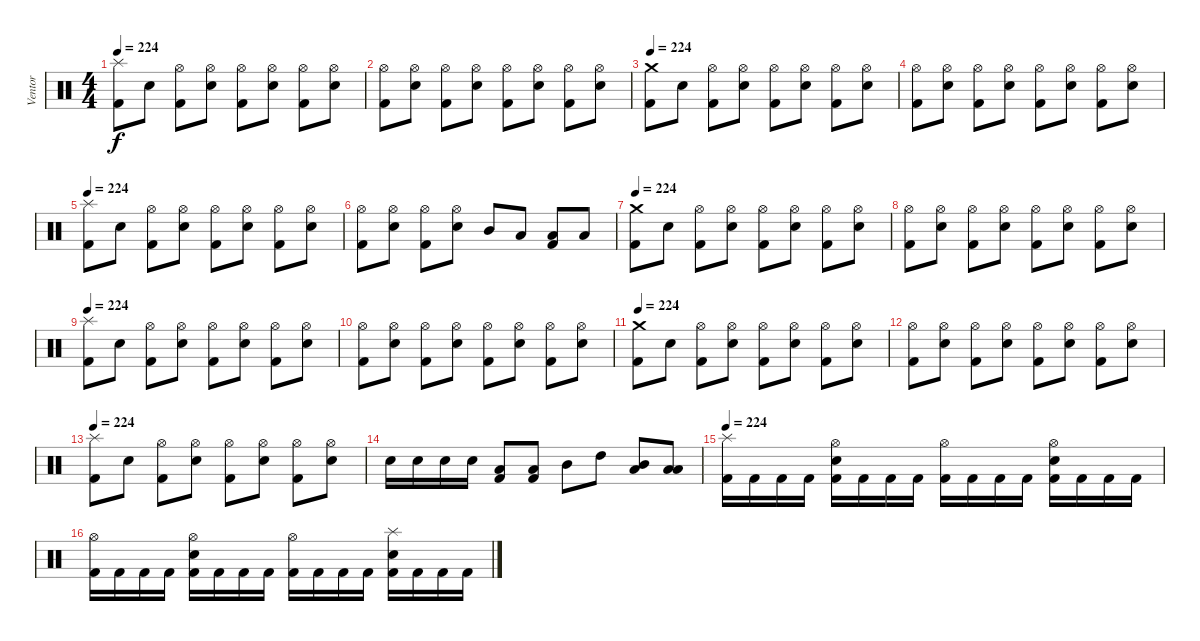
\track ("Ventor" "Ventor") {instrument percussion}
\staff {score}
\articulation defaults
\ts (4 4)
\tempo 224
\clef neutral
\ks c
("Splash (hit)" "Kick (hit) 2").8{dy f} "Electric Snare (hit)".8 ("Hi-Hat (open)" "Kick (hit) 2").8 ("Hi-Hat (open)" "Electric Snare (hit)").8 ("Hi-Hat (open)" "Kick (hit) 2").8 ("Hi-Hat (open)" "Electric Snare (hit)").8 ("Hi-Hat (open)" "Kick (hit) 2").8 ("Hi-Hat (open)" "Electric Snare (hit)").8 |
("Hi-Hat (open)" "Kick (hit) 2").8 ("Hi-Hat (open)" "Electric Snare (hit)").8 ("Hi-Hat (open)" "Kick (hit) 2").8 ("Hi-Hat (open)" "Electric Snare (hit)").8 ("Hi-Hat (open)" "Kick (hit) 2").8 ("Hi-Hat (open)" "Electric Snare (hit)").8 ("Hi-Hat (open)" "Kick (hit) 2").8 ("Hi-Hat (open)" "Electric Snare (hit)").8 |
\tempo 224
("Crash medium (hit)" "Kick (hit) 2").8 "Electric Snare (hit)".8 ("Hi-Hat (open)" "Kick (hit) 2").8 ("Hi-Hat (open)" "Electric Snare (hit)").8 ("Hi-Hat (open)" "Kick (hit) 2").8 ("Hi-Hat (open)" "Electric Snare (hit)").8 ("Hi-Hat (open)" "Kick (hit) 2").8 ("Hi-Hat (open)" "Electric Snare (hit)").8 |
("Hi-Hat (open)" "Kick (hit) 2").8 ("Hi-Hat (open)" "Electric Snare (hit)").8 ("Hi-Hat (open)" "Kick (hit) 2").8 ("Hi-Hat (open)" "Electric Snare (hit)").8 ("Hi-Hat (open)" "Kick (hit) 2").8 ("Hi-Hat (open)" "Electric Snare (hit)").8 ("Hi-Hat (open)" "Kick (hit) 2").8 ("Hi-Hat (open)" "Electric Snare (hit)").8 |
\tempo 224
("Splash (hit)" "Kick (hit) 2").8 "Electric Snare (hit)".8 ("Hi-Hat (open)" "Kick (hit) 2").8 ("Hi-Hat (open)" "Electric Snare (hit)").8 ("Hi-Hat (open)" "Kick (hit) 2").8 ("Hi-Hat (open)" "Electric Snare (hit)").8 ("Hi-Hat (open)" "Kick (hit) 2").8 ("Hi-Hat (open)" "Electric Snare (hit)").8 |
("Hi-Hat (open)" "Kick (hit) 2").8 ("Hi-Hat (open)" "Electric Snare (hit)").8 ("Hi-Hat (open)" "Kick (hit) 2").8 ("Hi-Hat (open)" "Electric Snare (hit)").8 "Mid Tom (hit)".8 "Low Tom (hit)".8 ("Low Floor Tom (hit)" "Kick (hit) 2").8 "Low Floor Tom (hit)".8 |
\tempo 224
("Crash medium (hit)" "Kick (hit) 2").8 "Electric Snare (hit)".8 ("Hi-Hat (open)" "Kick (hit) 2").8 ("Hi-Hat (open)" "Electric Snare (hit)").8 ("Hi-Hat (open)" "Kick (hit) 2").8 ("Hi-Hat (open)" "Electric Snare (hit)").8 ("Hi-Hat (open)" "Kick (hit) 2").8 ("Hi-Hat (open)" "Electric Snare (hit)").8 |
("Hi-Hat (open)" "Kick (hit) 2").8 ("Hi-Hat (open)" "Electric Snare (hit)").8 ("Hi-Hat (open)" "Kick (hit) 2").8 ("Hi-Hat (open)" "Electric Snare (hit)").8 ("Hi-Hat (open)" "Kick (hit) 2").8 ("Hi-Hat (open)" "Electric Snare (hit)").8 ("Hi-Hat (open)" "Kick (hit) 2").8 ("Hi-Hat (open)" "Electric Snare (hit)").8 |
\tempo 224
("Splash (hit)" "Kick (hit) 2").8 "Electric Snare (hit)".8 ("Hi-Hat (open)" "Kick (hit) 2").8 ("Hi-Hat (open)" "Electric Snare (hit)").8 ("Hi-Hat (open)" "Kick (hit) 2").8 ("Hi-Hat (open)" "Electric Snare (hit)").8 ("Hi-Hat (open)" "Kick (hit) 2").8 ("Hi-Hat (open)" "Electric Snare (hit)").8 |
("Hi-Hat (open)" "Kick (hit) 2").8 ("Hi-Hat (open)" "Electric Snare (hit)").8 ("Hi-Hat (open)" "Kick (hit) 2").8 ("Hi-Hat (open)" "Electric Snare (hit)").8 ("Hi-Hat (open)" "Kick (hit) 2").8 ("Hi-Hat (open)" "Electric Snare (hit)").8 ("Hi-Hat (open)" "Kick (hit) 2").8 ("Hi-Hat (open)" "Electric Snare (hit)").8 |
\tempo 224
("Crash medium (hit)" "Kick (hit) 2").8 "Electric Snare (hit)".8 ("Hi-Hat (open)" "Kick (hit) 2").8 ("Hi-Hat (open)" "Electric Snare (hit)").8 ("Hi-Hat (open)" "Kick (hit) 2").8 ("Hi-Hat (open)" "Electric Snare (hit)").8 ("Hi-Hat (open)" "Kick (hit) 2").8 ("Hi-Hat (open)" "Electric Snare (hit)").8 |
("Hi-Hat (open)" "Kick (hit) 2").8 ("Hi-Hat (open)" "Electric Snare (hit)").8 ("Hi-Hat (open)" "Kick (hit) 2").8 ("Hi-Hat (open)" "Electric Snare (hit)").8 ("Hi-Hat (open)" "Kick (hit) 2").8 ("Hi-Hat (open)" "Electric Snare (hit)").8 ("Hi-Hat (open)" "Kick (hit) 2").8 ("Hi-Hat (open)" "Electric Snare (hit)").8 |
\tempo 224
("Splash (hit)" "Kick (hit) 2").8 "Electric Snare (hit)".8 ("Hi-Hat (open)" "Kick (hit) 2").8 ("Hi-Hat (open)" "Electric Snare (hit)").8 ("Hi-Hat (open)" "Kick (hit) 2").8 ("Hi-Hat (open)" "Electric Snare (hit)").8 ("Hi-Hat (open)" "Kick (hit) 2").8 ("Hi-Hat (open)" "Electric Snare (hit)").8 |
"Electric Snare (hit)".16 "Electric Snare (hit)".16 "Electric Snare (hit)".16 "Electric Snare (hit)".16 ("Low Floor Tom (hit)" "Kick (hit) 2").8 ("Low Floor Tom (hit)" "Kick (hit) 2").8 "Mid Tom (hit)".8 "High Tom (hit)".8 ("Mid Tom (hit)" "Low Floor Tom (hit)").8 ("Low Tom (hit)" "Low Floor Tom (hit)").8 |
\tempo 224
("Splash (hit)" "Kick (hit) 2").16 "Kick (hit) 2".16 "Kick (hit) 2".16 "Kick (hit) 2".16 ("Hi-Hat (open)" "Electric Snare (hit)" "Kick (hit) 2").16 "Kick (hit) 2".16 "Kick (hit) 2".16 "Kick (hit) 2".16 ("Hi-Hat (open)" "Kick (hit) 2").16 "Kick (hit) 2".16 "Kick (hit) 2".16 "Kick (hit) 2".16 ("Hi-Hat (open)" "Electric Snare (hit)" "Kick (hit) 2").16 "Kick (hit) 2".16 "Kick (hit) 2".16 "Kick (hit) 2".16 |
("Hi-Hat (open)" "Kick (hit) 2").16 "Kick (hit) 2".16 "Kick (hit) 2".16 "Kick (hit) 2".16 ("Hi-Hat (open)" "Electric Snare (hit)" "Kick (hit) 2").16 "Kick (hit) 2".16 "Kick (hit) 2".16 "Kick (hit) 2".16 ("Hi-Hat (open)" "Kick (hit) 2").16 "Kick (hit) 2".16 "Kick (hit) 2".16 "Kick (hit) 2".16 ("Splash (hit)" "Electric Snare (hit)" "Kick (hit) 2").16 "Kick (hit) 2".16 "Kick (hit) 2".16 "Kick (hit) 2".16
